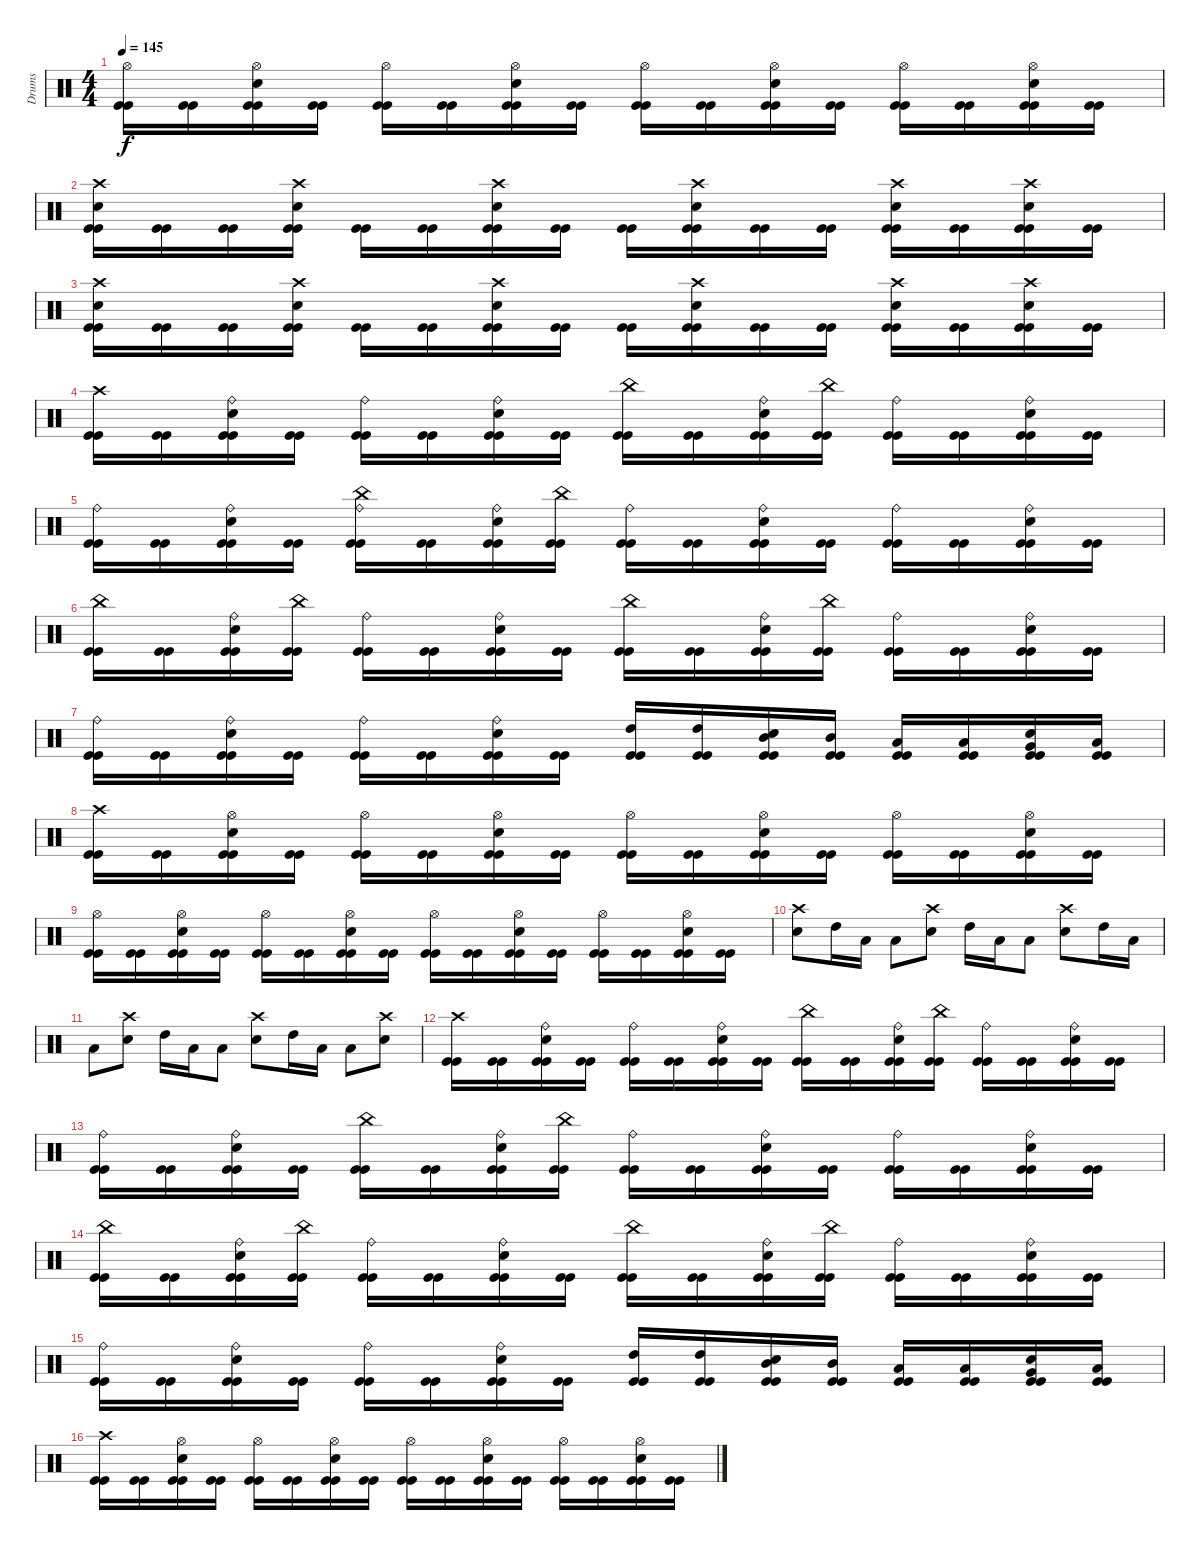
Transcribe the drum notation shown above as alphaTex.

\track ("Drums" "Drums") {instrument percussion}
\staff {score}
\articulation defaults
\ts (4 4)
\tempo 145
\clef neutral
\ks c
("Kick (hit)" "Kick (hit)" "Hi-Hat (open)").16{dy f} ("Kick (hit)" "Kick (hit)").16 ("Kick (hit)" "Kick (hit)" "Snare (hit) 2" "Hi-Hat (open)").16 ("Kick (hit)" "Kick (hit)").16 ("Kick (hit)" "Kick (hit)" "Hi-Hat (open)").16 ("Kick (hit)" "Kick (hit)").16 ("Kick (hit)" "Kick (hit)" "Snare (hit) 2" "Hi-Hat (open)").16 ("Kick (hit)" "Kick (hit)").16 ("Kick (hit)" "Kick (hit)" "Hi-Hat (open)").16 ("Kick (hit)" "Kick (hit)").16 ("Kick (hit)" "Kick (hit)" "Snare (hit) 2" "Hi-Hat (open)").16 ("Kick (hit)" "Kick (hit)").16 ("Kick (hit)" "Kick (hit)" "Hi-Hat (open)").16 ("Kick (hit)" "Kick (hit)").16 ("Kick (hit)" "Kick (hit)" "Snare (hit) 2" "Hi-Hat (open)").16 ("Kick (hit)" "Kick (hit)").16 |
("Kick (hit)" "Kick (hit)" "Snare (hit) 2" "Crash high (hit)").16 ("Kick (hit)" "Kick (hit)").16 ("Kick (hit)" "Kick (hit)").16 ("Kick (hit)" "Kick (hit)" "Snare (hit) 2" "Crash high (hit)").16 ("Kick (hit)" "Kick (hit)").16 ("Kick (hit)" "Kick (hit)").16 ("Kick (hit)" "Kick (hit)" "Snare (hit) 2" "Crash high (hit)").16 ("Kick (hit)" "Kick (hit)").16 ("Kick (hit)" "Kick (hit)").16 ("Kick (hit)" "Kick (hit)" "Snare (hit) 2" "Crash high (hit)").16 ("Kick (hit)" "Kick (hit)").16 ("Kick (hit)" "Kick (hit)").16 ("Kick (hit)" "Kick (hit)" "Snare (hit) 2" "Crash high (hit)").16 ("Kick (hit)" "Kick (hit)").16 ("Kick (hit)" "Kick (hit)" "Snare (hit) 2" "Crash high (hit)").16 ("Kick (hit)" "Kick (hit)").16 |
("Kick (hit)" "Kick (hit)" "Snare (hit) 2" "Crash high (hit)").16 ("Kick (hit)" "Kick (hit)").16 ("Kick (hit)" "Kick (hit)").16 ("Kick (hit)" "Kick (hit)" "Snare (hit) 2" "Crash high (hit)").16 ("Kick (hit)" "Kick (hit)").16 ("Kick (hit)" "Kick (hit)").16 ("Kick (hit)" "Kick (hit)" "Snare (hit) 2" "Crash high (hit)").16 ("Kick (hit)" "Kick (hit)").16 ("Kick (hit)" "Kick (hit)").16 ("Kick (hit)" "Kick (hit)" "Snare (hit) 2" "Crash high (hit)").16 ("Kick (hit)" "Kick (hit)").16 ("Kick (hit)" "Kick (hit)").16 ("Kick (hit)" "Kick (hit)" "Snare (hit) 2" "Crash high (hit)").16 ("Kick (hit)" "Kick (hit)").16 ("Kick (hit)" "Kick (hit)" "Snare (hit) 2" "Crash high (hit)").16 ("Kick (hit)" "Kick (hit)").16 |
("Kick (hit)" "Kick (hit)" "Crash high (hit)").16 ("Kick (hit)" "Kick (hit)").16 ("Kick (hit)" "Kick (hit)" "Snare (hit) 2" "Ride (bell)").16 ("Kick (hit)" "Kick (hit)").16 ("Kick (hit)" "Kick (hit)" "Ride (bell)").16 ("Kick (hit)" "Kick (hit)").16 ("Kick (hit)" "Kick (hit)" "Snare (hit) 2" "Ride (bell)").16 ("Kick (hit)" "Kick (hit)").16 ("Kick (hit)" "Kick (hit)" "China (hit)").16 ("Kick (hit)" "Kick (hit)").16 ("Kick (hit)" "Kick (hit)" "Snare (hit) 2" "Ride (bell)").16 ("Kick (hit)" "Kick (hit)" "China (hit)").16 ("Kick (hit)" "Kick (hit)" "Ride (bell)").16 ("Kick (hit)" "Kick (hit)").16 ("Kick (hit)" "Kick (hit)" "Snare (hit) 2" "Ride (bell)").16 ("Kick (hit)" "Kick (hit)").16 |
("Kick (hit)" "Kick (hit)" "Ride (bell)").16 ("Kick (hit)" "Kick (hit)").16 ("Kick (hit)" "Kick (hit)" "Snare (hit) 2" "Ride (bell)").16 ("Kick (hit)" "Kick (hit)").16 ("Kick (hit)" "Kick (hit)" "China (hit)" "Ride (bell)").16 ("Kick (hit)" "Kick (hit)").16 ("Kick (hit)" "Kick (hit)" "Snare (hit) 2" "Ride (bell)").16 ("Kick (hit)" "Kick (hit)" "China (hit)").16 ("Kick (hit)" "Kick (hit)" "Ride (bell)").16 ("Kick (hit)" "Kick (hit)").16 ("Kick (hit)" "Kick (hit)" "Snare (hit) 2" "Ride (bell)").16 ("Kick (hit)" "Kick (hit)").16 ("Kick (hit)" "Kick (hit)" "Ride (bell)").16 ("Kick (hit)" "Kick (hit)").16 ("Kick (hit)" "Kick (hit)" "Snare (hit) 2" "Ride (bell)").16 ("Kick (hit)" "Kick (hit)").16 |
("Kick (hit)" "Kick (hit)" "China (hit)").16 ("Kick (hit)" "Kick (hit)").16 ("Kick (hit)" "Kick (hit)" "Snare (hit) 2" "Ride (bell)").16 ("Kick (hit)" "Kick (hit)" "China (hit)").16 ("Kick (hit)" "Kick (hit)" "Ride (bell)").16 ("Kick (hit)" "Kick (hit)").16 ("Kick (hit)" "Kick (hit)" "Snare (hit) 2" "Ride (bell)").16 ("Kick (hit)" "Kick (hit)").16 ("Kick (hit)" "Kick (hit)" "China (hit)").16 ("Kick (hit)" "Kick (hit)").16 ("Kick (hit)" "Kick (hit)" "Snare (hit) 2" "Ride (bell)").16 ("Kick (hit)" "Kick (hit)" "China (hit)").16 ("Kick (hit)" "Kick (hit)" "Ride (bell)").16 ("Kick (hit)" "Kick (hit)").16 ("Kick (hit)" "Kick (hit)" "Snare (hit) 2" "Ride (bell)").16 ("Kick (hit)" "Kick (hit)").16 |
("Kick (hit)" "Kick (hit)" "Ride (bell)").16 ("Kick (hit)" "Kick (hit)").16 ("Kick (hit)" "Kick (hit)" "Snare (hit) 2" "Ride (bell)").16 ("Kick (hit)" "Kick (hit)").16 ("Kick (hit)" "Kick (hit)" "Ride (bell)").16 ("Kick (hit)" "Kick (hit)").16 ("Kick (hit)" "Kick (hit)" "Snare (hit) 2" "Ride (bell)").16 ("Kick (hit)" "Kick (hit)").16 ("Kick (hit)" "Kick (hit)" "High Tom (hit)").16 ("Kick (hit)" "Kick (hit)" "High Tom (hit)").16 ("Kick (hit)" "Kick (hit)" "Snare (hit) 2" "Mid Tom (hit)").16 ("Kick (hit)" "Kick (hit)" "Mid Tom (hit)").16 ("Kick (hit)" "Kick (hit)" "Low Tom (hit)").16 ("Kick (hit)" "Kick (hit)" "Low Tom (hit)").16 ("Kick (hit)" "Kick (hit)" "Snare (hit) 2" "Very Low Tom (hit)").16 ("Kick (hit)" "Kick (hit)" "Low Floor Tom (hit)").16 |
("Kick (hit)" "Kick (hit)" "Crash high (hit)").16 ("Kick (hit)" "Kick (hit)").16 ("Kick (hit)" "Kick (hit)" "Snare (hit) 2" "Hi-Hat (open)").16 ("Kick (hit)" "Kick (hit)").16 ("Kick (hit)" "Kick (hit)" "Hi-Hat (open)").16 ("Kick (hit)" "Kick (hit)").16 ("Kick (hit)" "Kick (hit)" "Snare (hit) 2" "Hi-Hat (open)").16 ("Kick (hit)" "Kick (hit)").16 ("Kick (hit)" "Kick (hit)" "Hi-Hat (open)").16 ("Kick (hit)" "Kick (hit)").16 ("Kick (hit)" "Kick (hit)" "Snare (hit) 2" "Hi-Hat (open)").16 ("Kick (hit)" "Kick (hit)").16 ("Kick (hit)" "Kick (hit)" "Hi-Hat (open)").16 ("Kick (hit)" "Kick (hit)").16 ("Kick (hit)" "Kick (hit)" "Snare (hit) 2" "Hi-Hat (open)").16 ("Kick (hit)" "Kick (hit)").16 |
("Kick (hit)" "Kick (hit)" "Hi-Hat (open)").16 ("Kick (hit)" "Kick (hit)").16 ("Kick (hit)" "Kick (hit)" "Snare (hit) 2" "Hi-Hat (open)").16 ("Kick (hit)" "Kick (hit)").16 ("Kick (hit)" "Kick (hit)" "Hi-Hat (open)").16 ("Kick (hit)" "Kick (hit)").16 ("Kick (hit)" "Kick (hit)" "Snare (hit) 2" "Hi-Hat (open)").16 ("Kick (hit)" "Kick (hit)").16 ("Kick (hit)" "Kick (hit)" "Hi-Hat (open)").16 ("Kick (hit)" "Kick (hit)").16 ("Kick (hit)" "Kick (hit)" "Snare (hit) 2" "Hi-Hat (open)").16 ("Kick (hit)" "Kick (hit)").16 ("Kick (hit)" "Kick (hit)" "Hi-Hat (open)").16 ("Kick (hit)" "Kick (hit)").16 ("Kick (hit)" "Kick (hit)" "Snare (hit) 2" "Hi-Hat (open)").16 ("Kick (hit)" "Kick (hit)").16 |
("Snare (hit) 2" "Crash high (hit)").8 "High Tom (hit)".16 "Low Tom (hit)".16 "Low Floor Tom (hit)".8 ("Snare (hit) 2" "Crash high (hit)").8 "High Tom (hit)".16 "Low Tom (hit)".16 "Low Floor Tom (hit)".8 ("Snare (hit) 2" "Crash high (hit)").8 "High Tom (hit)".16 "Low Tom (hit)".16 |
"Low Floor Tom (hit)".8 ("Snare (hit) 2" "Crash high (hit)").8 "High Tom (hit)".16 "Low Tom (hit)".16 "Low Floor Tom (hit)".8 ("Snare (hit) 2" "Crash high (hit)").8 "High Tom (hit)".16 "Low Tom (hit)".16 "Low Floor Tom (hit)".8 ("Snare (hit) 2" "Crash high (hit)").8 |
("Kick (hit)" "Kick (hit)" "Crash high (hit)").16 ("Kick (hit)" "Kick (hit)").16 ("Kick (hit)" "Kick (hit)" "Snare (hit) 2" "Ride (bell)").16 ("Kick (hit)" "Kick (hit)").16 ("Kick (hit)" "Kick (hit)" "Ride (bell)").16 ("Kick (hit)" "Kick (hit)").16 ("Kick (hit)" "Kick (hit)" "Snare (hit) 2" "Ride (bell)").16 ("Kick (hit)" "Kick (hit)").16 ("Kick (hit)" "Kick (hit)" "China (hit)").16 ("Kick (hit)" "Kick (hit)").16 ("Kick (hit)" "Kick (hit)" "Snare (hit) 2" "Ride (bell)").16 ("Kick (hit)" "Kick (hit)" "China (hit)").16 ("Kick (hit)" "Kick (hit)" "Ride (bell)").16 ("Kick (hit)" "Kick (hit)").16 ("Kick (hit)" "Kick (hit)" "Snare (hit) 2" "Ride (bell)").16 ("Kick (hit)" "Kick (hit)").16 |
("Kick (hit)" "Kick (hit)" "Ride (bell)").16 ("Kick (hit)" "Kick (hit)").16 ("Kick (hit)" "Kick (hit)" "Snare (hit) 2" "Ride (bell)").16 ("Kick (hit)" "Kick (hit)").16 ("Kick (hit)" "Kick (hit)" "China (hit)").16 ("Kick (hit)" "Kick (hit)").16 ("Kick (hit)" "Kick (hit)" "Snare (hit) 2" "Ride (bell)").16 ("Kick (hit)" "Kick (hit)" "China (hit)").16 ("Kick (hit)" "Kick (hit)" "Ride (bell)").16 ("Kick (hit)" "Kick (hit)").16 ("Kick (hit)" "Kick (hit)" "Snare (hit) 2" "Ride (bell)").16 ("Kick (hit)" "Kick (hit)").16 ("Kick (hit)" "Kick (hit)" "Ride (bell)").16 ("Kick (hit)" "Kick (hit)").16 ("Kick (hit)" "Kick (hit)" "Snare (hit) 2" "Ride (bell)").16 ("Kick (hit)" "Kick (hit)").16 |
("Kick (hit)" "Kick (hit)" "China (hit)").16 ("Kick (hit)" "Kick (hit)").16 ("Kick (hit)" "Kick (hit)" "Snare (hit) 2" "Ride (bell)").16 ("Kick (hit)" "Kick (hit)" "China (hit)").16 ("Kick (hit)" "Kick (hit)" "Ride (bell)").16 ("Kick (hit)" "Kick (hit)").16 ("Kick (hit)" "Kick (hit)" "Snare (hit) 2" "Ride (bell)").16 ("Kick (hit)" "Kick (hit)").16 ("Kick (hit)" "Kick (hit)" "China (hit)").16 ("Kick (hit)" "Kick (hit)").16 ("Kick (hit)" "Kick (hit)" "Snare (hit) 2" "Ride (bell)").16 ("Kick (hit)" "Kick (hit)" "China (hit)").16 ("Kick (hit)" "Kick (hit)" "Ride (bell)").16 ("Kick (hit)" "Kick (hit)").16 ("Kick (hit)" "Kick (hit)" "Snare (hit) 2" "Ride (bell)").16 ("Kick (hit)" "Kick (hit)").16 |
("Kick (hit)" "Kick (hit)" "Ride (bell)").16 ("Kick (hit)" "Kick (hit)").16 ("Kick (hit)" "Kick (hit)" "Snare (hit) 2" "Ride (bell)").16 ("Kick (hit)" "Kick (hit)").16 ("Kick (hit)" "Kick (hit)" "Ride (bell)").16 ("Kick (hit)" "Kick (hit)").16 ("Kick (hit)" "Kick (hit)" "Snare (hit) 2" "Ride (bell)").16 ("Kick (hit)" "Kick (hit)").16 ("Kick (hit)" "Kick (hit)" "High Tom (hit)").16 ("Kick (hit)" "Kick (hit)" "High Tom (hit)").16 ("Kick (hit)" "Kick (hit)" "Snare (hit) 2" "Mid Tom (hit)").16 ("Kick (hit)" "Kick (hit)" "Mid Tom (hit)").16 ("Kick (hit)" "Kick (hit)" "Low Tom (hit)").16 ("Kick (hit)" "Kick (hit)" "Low Tom (hit)").16 ("Kick (hit)" "Kick (hit)" "Snare (hit) 2" "Very Low Tom (hit)").16 ("Kick (hit)" "Kick (hit)" "Low Floor Tom (hit)").16 |
("Kick (hit)" "Kick (hit)" "Crash high (hit)").16 ("Kick (hit)" "Kick (hit)").16 ("Kick (hit)" "Kick (hit)" "Snare (hit) 2" "Hi-Hat (open)").16 ("Kick (hit)" "Kick (hit)").16 ("Kick (hit)" "Kick (hit)" "Hi-Hat (open)").16 ("Kick (hit)" "Kick (hit)").16 ("Kick (hit)" "Kick (hit)" "Snare (hit) 2" "Hi-Hat (open)").16 ("Kick (hit)" "Kick (hit)").16 ("Kick (hit)" "Kick (hit)" "Hi-Hat (open)").16 ("Kick (hit)" "Kick (hit)").16 ("Kick (hit)" "Kick (hit)" "Snare (hit) 2" "Hi-Hat (open)").16 ("Kick (hit)" "Kick (hit)").16 ("Kick (hit)" "Kick (hit)" "Hi-Hat (open)").16 ("Kick (hit)" "Kick (hit)").16 ("Kick (hit)" "Kick (hit)" "Snare (hit) 2" "Hi-Hat (open)").16 ("Kick (hit)" "Kick (hit)").16
